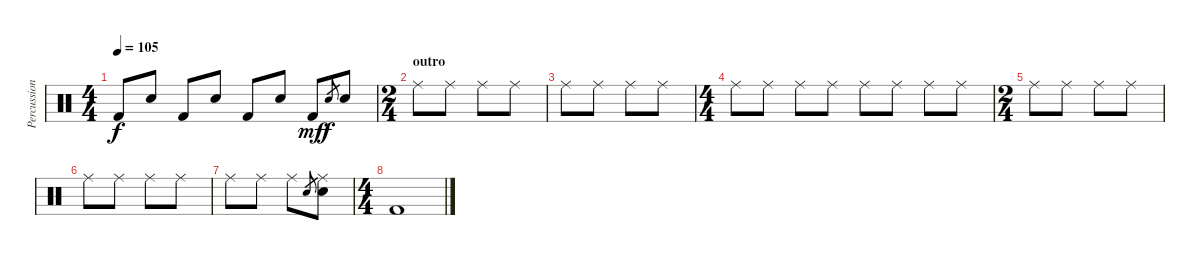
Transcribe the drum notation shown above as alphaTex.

\track ("Percussion" "Percussion") {instrument percussion}
\staff {score}
\articulation defaults
\ts (4 4)
\tempo 105
\clef neutral
\ks c "Kick (hit) 2".8{dy f} "Electric Snare (hit)".8 "Kick (hit) 2".8 "Electric Snare (hit)".8 "Kick (hit) 2".8 "Electric Snare (hit)".8 "Kick (hit) 2".8{dy mf} "Electric Snare (hit)".8{gr dy f} "Electric Snare (hit)".8
|
\ts (2 4)
\section ("" "outro")
"Ride (middle)".8 "Ride (middle)".8 "Ride (middle)".8 "Ride (middle)".8 |
"Ride (middle)".8 "Ride (middle)".8 "Ride (middle)".8 "Ride (middle)".8 |
\ts (4 4)
"Ride (middle)".8 "Ride (middle)".8 "Ride (middle)".8 "Ride (middle)".8 "Ride (middle)".8 "Ride (middle)".8 "Ride (middle)".8 "Ride (middle)".8 |
\ts (2 4)
"Ride (middle)".8 "Ride (middle)".8 "Ride (middle)".8 "Ride (middle)".8 |
"Ride (middle)".8 "Ride (middle)".8 "Ride (middle)".8 "Ride (middle)".8 |
"Ride (middle)".8 "Ride (middle)".8 "Ride (middle)".8 "Electric Snare (hit)".8{gr} ("Ride (middle)" "Electric Snare (hit)").8 |
\ts (4 4)
"Kick (hit) 2".1
